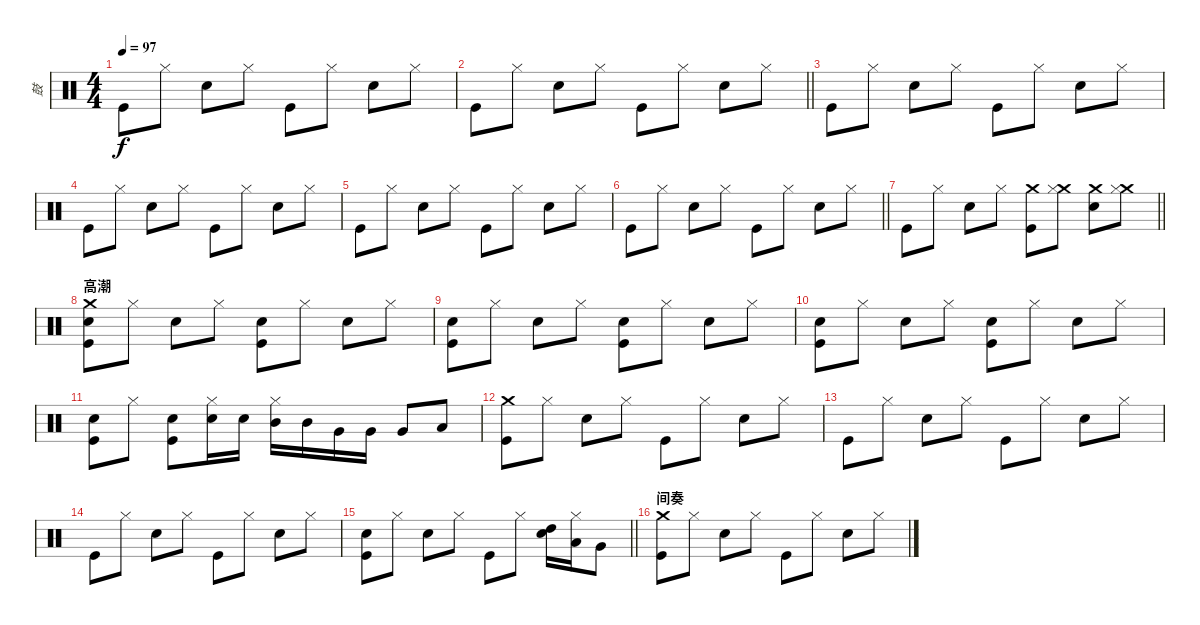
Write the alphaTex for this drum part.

\track ("鼓" "鼓") {instrument percussion}
\staff {score}
\articulation defaults
\ts (4 4)
\tempo 97
\clef neutral
\ks c "Kick (hit)".8{dy f} "Hi-Hat (closed)".8 "Electric Snare (hit)".8 "Hi-Hat (closed)".8 "Kick (hit)".8 "Hi-Hat (closed)".8 "Electric Snare (hit)".8 "Hi-Hat (closed)".8
|
\barLineRight lightlight "Kick (hit)".8 "Hi-Hat (closed)".8 "Electric Snare (hit)".8 "Hi-Hat (closed)".8 "Kick (hit)".8 "Hi-Hat (closed)".8 "Electric Snare (hit)".8 "Hi-Hat (closed)".8
|
\section ("" "")
"Kick (hit)".8 "Hi-Hat (closed)".8 "Electric Snare (hit)".8 "Hi-Hat (closed)".8 "Kick (hit)".8 "Hi-Hat (closed)".8 "Electric Snare (hit)".8 "Hi-Hat (closed)".8 |
"Kick (hit)".8 "Hi-Hat (closed)".8 "Electric Snare (hit)".8 "Hi-Hat (closed)".8 "Kick (hit)".8 "Hi-Hat (closed)".8 "Electric Snare (hit)".8 "Hi-Hat (closed)".8 |
"Kick (hit)".8 "Hi-Hat (closed)".8 "Electric Snare (hit)".8 "Hi-Hat (closed)".8 "Kick (hit)".8 "Hi-Hat (closed)".8 "Electric Snare (hit)".8 "Hi-Hat (closed)".8 |
\barLineRight lightlight "Kick (hit)".8 "Hi-Hat (closed)".8 "Electric Snare (hit)".8 "Hi-Hat (closed)".8 "Kick (hit)".8 "Hi-Hat (closed)".8 "Electric Snare (hit)".8 "Hi-Hat (closed)".8
|
\barLineRight lightlight "Kick (hit)".8 "Hi-Hat (closed)".8 "Electric Snare (hit)".8 "Hi-Hat (closed)".8
("Crash medium (hit)" "Kick (hit)").8 ("Crash medium (hit)" "Hi-Hat (closed)").8 ("Crash medium (hit)" "Electric Snare (hit)").8 ("Crash medium (hit)" "Hi-Hat (closed)").8 |
\section ("" "高潮")
("Crash medium (hit)" "Electric Snare (hit)" "Kick (hit)").8 "Hi-Hat (closed)".8 "Electric Snare (hit)".8 "Hi-Hat (closed)".8 ("Electric Snare (hit)" "Kick (hit)").8 "Hi-Hat (closed)".8 "Electric Snare (hit)".8 "Hi-Hat (closed)".8 |
("Electric Snare (hit)" "Kick (hit)").8 "Hi-Hat (closed)".8 "Electric Snare (hit)".8 "Hi-Hat (closed)".8 ("Electric Snare (hit)" "Kick (hit)").8 "Hi-Hat (closed)".8 "Electric Snare (hit)".8 "Hi-Hat (closed)".8 |
("Electric Snare (hit)" "Kick (hit)").8 "Hi-Hat (closed)".8 "Electric Snare (hit)".8 "Hi-Hat (closed)".8 ("Electric Snare (hit)" "Kick (hit)").8 "Hi-Hat (closed)".8 "Electric Snare (hit)".8 "Hi-Hat (closed)".8 |
("Electric Snare (hit)" "Kick (hit)").8 "Hi-Hat (closed)".8 ("Electric Snare (hit)" "Kick (hit)").8 ("Hi-Hat (closed)" "Electric Snare (hit)").16 "Electric Snare (hit)".16 ("Mid Tom (hit)" "Hi-Hat (closed)").16 "Mid Tom (hit)".16 "Very Low Tom (hit)".16 "Very Low Tom (hit)".16 "Very Low Tom (hit)".8 "Low Floor Tom (hit)".8 |
("Crash medium (hit)" "Kick (hit)").8 "Hi-Hat (closed)".8 "Electric Snare (hit)".8 "Hi-Hat (closed)".8 "Kick (hit)".8 "Hi-Hat (closed)".8 "Electric Snare (hit)".8 "Hi-Hat (closed)".8 |
"Kick (hit)".8 "Hi-Hat (closed)".8 "Electric Snare (hit)".8 "Hi-Hat (closed)".8 "Kick (hit)".8 "Hi-Hat (closed)".8 "Electric Snare (hit)".8 "Hi-Hat (closed)".8 |
"Kick (hit)".8 "Hi-Hat (closed)".8 "Electric Snare (hit)".8 "Hi-Hat (closed)".8 "Kick (hit)".8 "Hi-Hat (closed)".8 "Electric Snare (hit)".8 "Hi-Hat (closed)".8 |
\barLineRight lightlight
("Electric Snare (hit)" "Kick (hit)").8 "Hi-Hat (closed)".8 "Electric Snare (hit)".8 "Hi-Hat (closed)".8 "Kick (hit)".8 "Hi-Hat (closed)".8 ("High Tom (hit)" "Electric Snare (hit)").16 ("Low Tom (hit)" "Hi-Hat (closed)").16 "Very Low Tom (hit)".8 |
\section ("" "间奏")
("Crash medium (hit)" "Kick (hit)").8 "Hi-Hat (closed)".8 "Electric Snare (hit)".8 "Hi-Hat (closed)".8 "Kick (hit)".8 "Hi-Hat (closed)".8 "Electric Snare (hit)".8 "Hi-Hat (closed)".8
